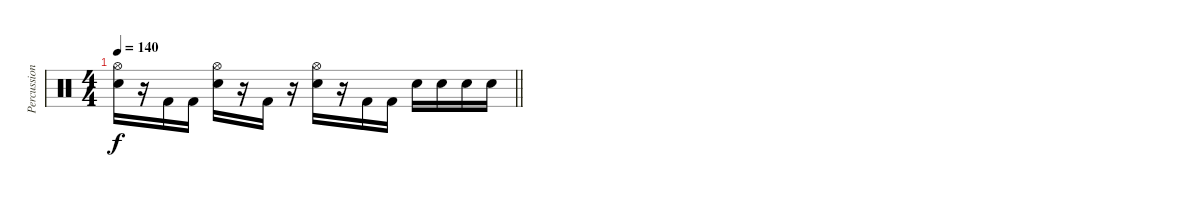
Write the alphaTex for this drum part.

\track ("Percussion" "Percussion") {instrument percussion}
\staff {score}
\articulation defaults
\ts (4 4)
\tempo 140
\clef neutral
\barLineRight lightlight
\ks c
("Hi-Hat (open)" "Snare (hit) 2").16{dy f} r.16 "Kick (hit) 2".16 "Kick (hit) 2".16 ("Hi-Hat (open)" "Snare (hit) 2").16 r.16 "Kick (hit) 2".16 r.16 ("Hi-Hat (open)" "Snare (hit) 2").16 r.16 "Kick (hit) 2".16 "Kick (hit) 2".16 "Snare (hit) 2".16 "Snare (hit) 2".16 "Snare (hit) 2".16 "Snare (hit) 2".16
